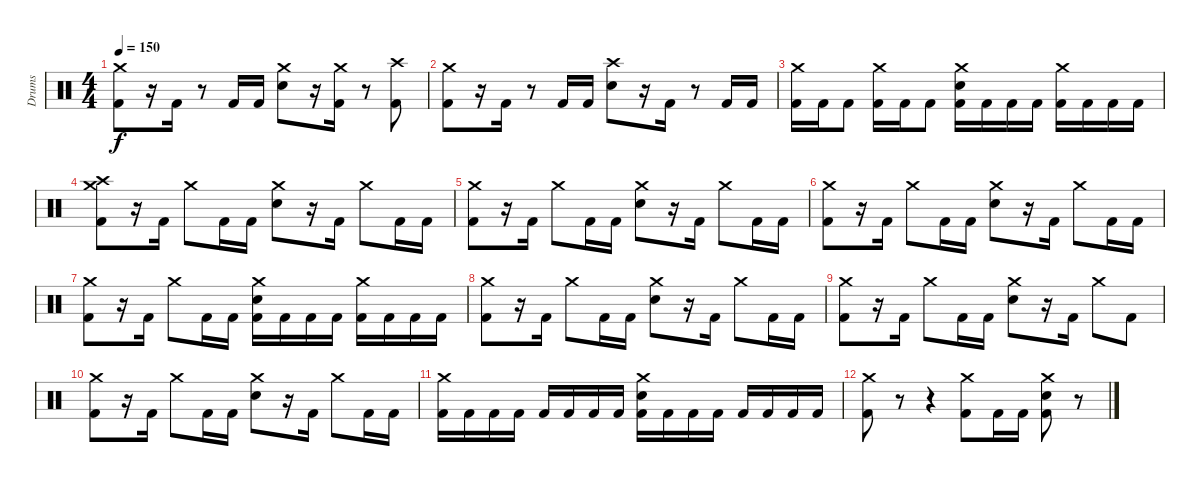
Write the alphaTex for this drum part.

\track ("Drums" "Drums") {instrument percussion}
\staff {score}
\articulation defaults
\ts (4 4)
\tempo 150
\clef neutral
\ks c
("Crash medium (hit)" "Kick (hit) 2").8{dy f} r.16 "Kick (hit) 2".16 r.8 "Kick (hit) 2".16 "Kick (hit) 2".16 ("Crash medium (hit)" "Electric Snare (hit)").8 r.16 ("Crash medium (hit)" "Kick (hit) 2").16 r.8 ("Crash high (hit)" "Kick (hit) 2").8 |
("Crash medium (hit)" "Kick (hit) 2").8 r.16 "Kick (hit) 2".16 r.8 "Kick (hit) 2".16 "Kick (hit) 2".16 ("Crash high (hit)" "Electric Snare (hit)").8 r.16 "Kick (hit) 2".16 r.8 "Kick (hit) 2".16 "Kick (hit) 2".16 |
("Crash medium (hit)" "Kick (hit) 2").16 "Kick (hit) 2".16 "Kick (hit) 2".8 ("Crash medium (hit)" "Kick (hit) 2").16 "Kick (hit) 2".16 "Kick (hit) 2".8 ("Crash medium (hit)" "Electric Snare (hit)" "Kick (hit) 2").16 "Kick (hit) 2".16 "Kick (hit) 2".16 "Kick (hit) 2".16 ("Crash medium (hit)" "Kick (hit) 2").16 "Kick (hit) 2".16 "Kick (hit) 2".16 "Kick (hit) 2".16 |
("Crash medium (hit)" "Crash high (hit)" "Kick (hit) 2").8 r.16 "Kick (hit) 2".16 "Crash medium (hit)".8 "Kick (hit) 2".16 "Kick (hit) 2".16 ("Crash medium (hit)" "Electric Snare (hit)").8 r.16 "Kick (hit) 2".16 "Crash medium (hit)".8 "Kick (hit) 2".16 "Kick (hit) 2".16 |
("Crash medium (hit)" "Kick (hit) 2").8 r.16 "Kick (hit) 2".16 "Crash medium (hit)".8 "Kick (hit) 2".16 "Kick (hit) 2".16 ("Crash medium (hit)" "Electric Snare (hit)").8 r.16 "Kick (hit) 2".16 "Crash medium (hit)".8 "Kick (hit) 2".16 "Kick (hit) 2".16 |
("Crash medium (hit)" "Kick (hit) 2").8 r.16 "Kick (hit) 2".16 "Crash medium (hit)".8 "Kick (hit) 2".16 "Kick (hit) 2".16 ("Crash medium (hit)" "Electric Snare (hit)").8 r.16 "Kick (hit) 2".16 "Crash medium (hit)".8 "Kick (hit) 2".16 "Kick (hit) 2".16 |
("Crash medium (hit)" "Kick (hit) 2").8 r.16 "Kick (hit) 2".16 "Crash medium (hit)".8 "Kick (hit) 2".16 "Kick (hit) 2".16 ("Crash medium (hit)" "Electric Snare (hit)" "Kick (hit) 2").16 "Kick (hit) 2".16 "Kick (hit) 2".16 "Kick (hit) 2".16 ("Crash medium (hit)" "Kick (hit) 2").16 "Kick (hit) 2".16 "Kick (hit) 2".16 "Kick (hit) 2".16 |
("Crash medium (hit)" "Kick (hit) 2").8 r.16 "Kick (hit) 2".16 "Crash medium (hit)".8 "Kick (hit) 2".16 "Kick (hit) 2".16 ("Crash medium (hit)" "Electric Snare (hit)").8 r.16 "Kick (hit) 2".16 "Crash medium (hit)".8 "Kick (hit) 2".16 "Kick (hit) 2".16 |
("Crash medium (hit)" "Kick (hit) 2").8 r.16 "Kick (hit) 2".16 "Crash medium (hit)".8 "Kick (hit) 2".16 "Kick (hit) 2".16 ("Crash medium (hit)" "Electric Snare (hit)").8 r.16 "Kick (hit) 2".16 "Crash medium (hit)".8 "Kick (hit) 2".8 |
("Crash medium (hit)" "Kick (hit) 2").8 r.16 "Kick (hit) 2".16 "Crash medium (hit)".8 "Kick (hit) 2".16 "Kick (hit) 2".16 ("Crash medium (hit)" "Electric Snare (hit)").8 r.16 "Kick (hit) 2".16 "Crash medium (hit)".8 "Kick (hit) 2".16 "Kick (hit) 2".16 |
("Crash medium (hit)" "Kick (hit) 2").16 "Kick (hit) 2".16 "Kick (hit) 2".16 "Kick (hit) 2".16 "Kick (hit) 2".16 "Kick (hit) 2".16 "Kick (hit) 2".16 "Kick (hit) 2".16 ("Crash medium (hit)" "Electric Snare (hit)" "Kick (hit) 2").16 "Kick (hit) 2".16 "Kick (hit) 2".16 "Kick (hit) 2".16 "Kick (hit) 2".16 "Kick (hit) 2".16 "Kick (hit) 2".16 "Kick (hit) 2".16 |
("Crash medium (hit)" "Kick (hit) 2").8 r.8 r.4 ("Crash medium (hit)" "Kick (hit) 2").8 "Kick (hit) 2".16 "Kick (hit) 2".16 ("Crash medium (hit)" "Electric Snare (hit)" "Kick (hit) 2").8 r.8
